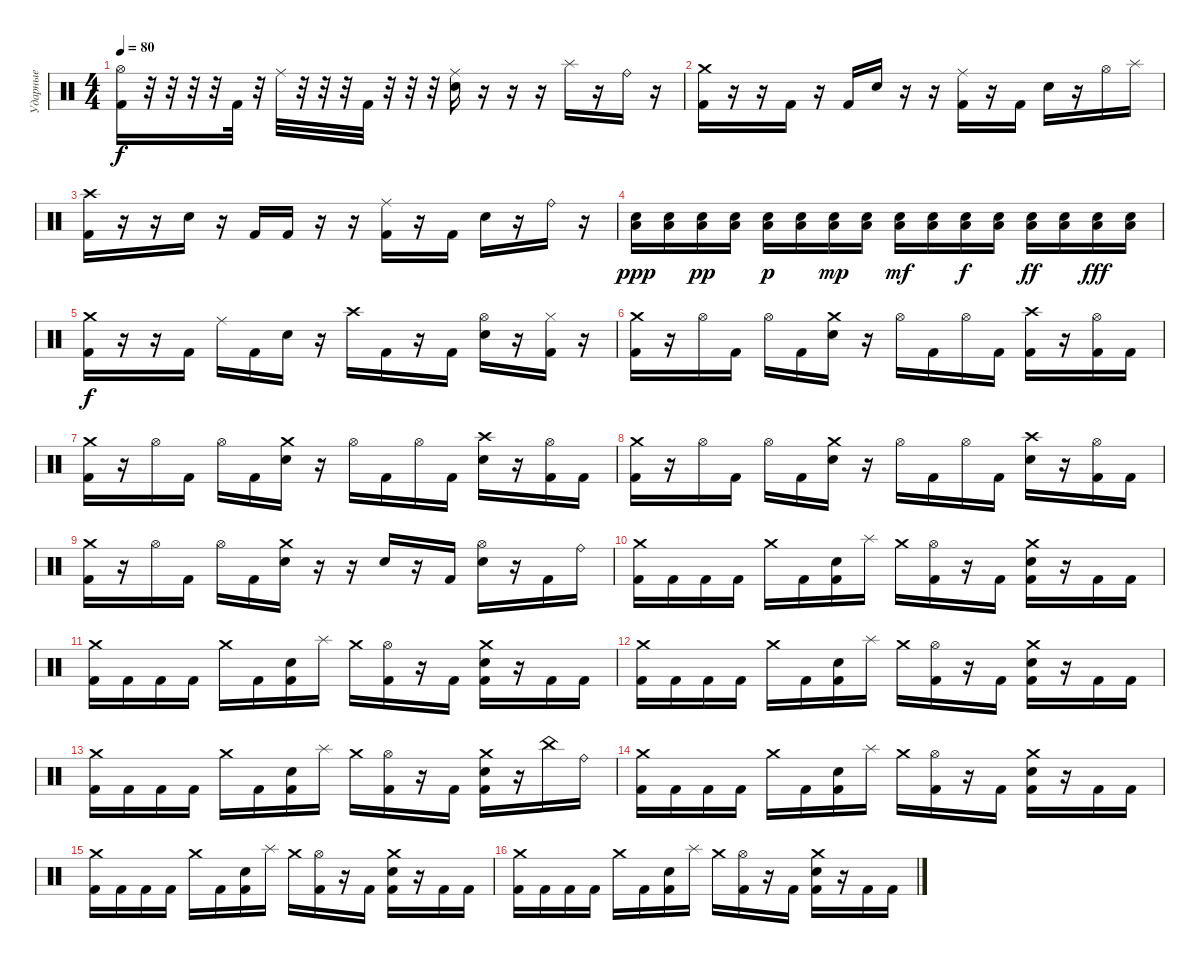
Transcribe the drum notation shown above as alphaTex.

\track ("Ударные" "Ударные") {instrument percussion}
\staff {score}
\articulation defaults
\ts (4 4)
\tempo 80
\clef neutral
\ks c
("Hi-Hat (open)" "Kick (hit) 2").16{dy f} r.32 r.32 r.32 r.32 "Kick (hit) 2".32 r.32 "Ride (middle)".32 r.32 r.32 r.32 "Kick (hit) 2".32 r.32 r.32 r.32 ("Ride (middle)" "Electric Snare (hit)").16 r.16 r.16 r.16 "Splash (hit)".16 r.16 "Ride (bell)".16 r.16 |
("Crash medium (hit)" "Kick (hit) 2").16 r.16 r.16 "Kick (hit) 2".16 r.16 "Kick (hit) 2".16 "Electric Snare (hit)".16 r.16 r.16 ("Ride (middle)" "Kick (hit) 2").16 r.16 "Kick (hit) 2".16 "Electric Snare (hit)".16 r.16 "Hi-Hat (open)".16 "Splash (hit)".16 |
("Crash high (hit)" "Kick (hit) 2").16 r.16 r.16 "Electric Snare (hit)".16 r.16 "Kick (hit) 2".16 "Kick (hit) 2".16 r.16 r.16 ("Ride (middle)" "Kick (hit) 2").16 r.16 "Kick (hit) 2".16 "Electric Snare (hit)".16 r.16 "Ride (bell)".16 r.16 |
("Electric Snare (hit)" "Low Floor Tom (hit)").16{dy ppp} ("Electric Snare (hit)" "Low Floor Tom (hit)").16 ("Electric Snare (hit)" "Low Floor Tom (hit)").16{dy pp} ("Electric Snare (hit)" "Low Floor Tom (hit)").16 ("Electric Snare (hit)" "Low Floor Tom (hit)").16{dy p} ("Electric Snare (hit)" "Low Floor Tom (hit)").16 ("Electric Snare (hit)" "Low Floor Tom (hit)").16{dy mp} ("Electric Snare (hit)" "Low Floor Tom (hit)").16 ("Electric Snare (hit)" "Low Floor Tom (hit)").16{dy mf} ("Electric Snare (hit)" "Low Floor Tom (hit)").16 ("Electric Snare (hit)" "Low Floor Tom (hit)").16{dy f} ("Electric Snare (hit)" "Low Floor Tom (hit)").16 ("Electric Snare (hit)" "Low Floor Tom (hit)").16{dy ff} ("Electric Snare (hit)" "Low Floor Tom (hit)").16 ("Electric Snare (hit)" "Low Floor Tom (hit)").16{dy fff} ("Electric Snare (hit)" "Low Floor Tom (hit)").16 |
("Crash medium (hit)" "Kick (hit) 2").16{dy f} r.16 r.16 "Kick (hit) 2".16 "Ride (middle)".16 "Kick (hit) 2".16 "Electric Snare (hit)".16 r.16 "Crash high (hit)".16 "Kick (hit) 2".16 r.16 "Kick (hit) 2".16 ("Hi-Hat (open)" "Electric Snare (hit)").16 r.16 ("Hi-Hat (closed)" "Kick (hit) 2").16 r.16 |
("Crash medium (hit)" "Kick (hit) 2").16 r.16 "Hi-Hat (open)".16 "Kick (hit) 2".16 "Hi-Hat (open)".16 "Kick (hit) 2".16 ("Crash medium (hit)" "Electric Snare (hit)").16 r.16 "Hi-Hat (open)".16 "Kick (hit) 2".16 "Hi-Hat (open)".16 "Kick (hit) 2".16 ("Crash high (hit)" "Kick (hit) 2").16 r.16 ("Hi-Hat (open)" "Kick (hit) 2").16 "Kick (hit) 2".16 |
("Crash medium (hit)" "Kick (hit) 2").16 r.16 "Hi-Hat (open)".16 "Kick (hit) 2".16 "Hi-Hat (open)".16 "Kick (hit) 2".16 ("Crash medium (hit)" "Electric Snare (hit)").16 r.16 "Hi-Hat (open)".16 "Kick (hit) 2".16 "Hi-Hat (open)".16 "Kick (hit) 2".16 ("Crash high (hit)" "Electric Snare (hit)").16 r.16 ("Hi-Hat (open)" "Kick (hit) 2").16 "Kick (hit) 2".16 |
("Crash medium (hit)" "Kick (hit) 2").16 r.16 "Hi-Hat (open)".16 "Kick (hit) 2".16 "Hi-Hat (open)".16 "Kick (hit) 2".16 ("Crash medium (hit)" "Electric Snare (hit)").16 r.16 "Hi-Hat (open)".16 "Kick (hit) 2".16 "Hi-Hat (open)".16 "Kick (hit) 2".16 ("Crash high (hit)" "Electric Snare (hit)").16 r.16 ("Hi-Hat (open)" "Kick (hit) 2").16 "Kick (hit) 2".16 |
("Crash medium (hit)" "Kick (hit) 2").16 r.16 "Hi-Hat (open)".16 "Kick (hit) 2".16 "Hi-Hat (open)".16 "Kick (hit) 2".16 ("Crash medium (hit)" "Electric Snare (hit)").16 r.16 r.16 "Electric Snare (hit)".16 r.16 "Kick (hit) 2".16 ("Hi-Hat (open)" "Electric Snare (hit)").16 r.16 "Kick (hit) 2".16 "Ride (bell)".16 |
("Crash medium (hit)" "Kick (hit) 2").16 "Kick (hit) 2".16 "Kick (hit) 2".16 "Kick (hit) 2".16 "Crash medium (hit)".16 "Kick (hit) 2".16 ("Electric Snare (hit)" "Kick (hit) 2").16 "Splash (hit)".16 "Crash medium (hit)".16 ("Hi-Hat (open)" "Kick (hit) 2").16 r.16 "Kick (hit) 2".16 ("Crash medium (hit)" "Electric Snare (hit)" "Kick (hit) 2").16 r.16 "Kick (hit) 2".16 "Kick (hit) 2".16 |
("Crash medium (hit)" "Kick (hit) 2").16 "Kick (hit) 2".16 "Kick (hit) 2".16 "Kick (hit) 2".16 "Crash medium (hit)".16 "Kick (hit) 2".16 ("Electric Snare (hit)" "Kick (hit) 2").16 "Splash (hit)".16 "Crash medium (hit)".16 ("Hi-Hat (open)" "Kick (hit) 2").16 r.16 "Kick (hit) 2".16 ("Crash medium (hit)" "Electric Snare (hit)" "Kick (hit) 2").16 r.16 "Kick (hit) 2".16 "Kick (hit) 2".16 |
("Crash medium (hit)" "Kick (hit) 2").16 "Kick (hit) 2".16 "Kick (hit) 2".16 "Kick (hit) 2".16 "Crash medium (hit)".16 "Kick (hit) 2".16 ("Electric Snare (hit)" "Kick (hit) 2").16 "Splash (hit)".16 "Crash medium (hit)".16 ("Hi-Hat (open)" "Kick (hit) 2").16 r.16 "Kick (hit) 2".16 ("Crash medium (hit)" "Electric Snare (hit)" "Kick (hit) 2").16 r.16 "Kick (hit) 2".16 "Kick (hit) 2".16 |
("Crash medium (hit)" "Kick (hit) 2").16 "Kick (hit) 2".16 "Kick (hit) 2".16 "Kick (hit) 2".16 "Crash medium (hit)".16 "Kick (hit) 2".16 ("Electric Snare (hit)" "Kick (hit) 2").16 "Splash (hit)".16 "Crash medium (hit)".16 ("Hi-Hat (open)" "Kick (hit) 2").16 r.16 "Kick (hit) 2".16 ("Crash medium (hit)" "Electric Snare (hit)" "Kick (hit) 2").16 r.16 "China (hit)".16 "Ride (bell)".16 |
("Crash medium (hit)" "Kick (hit) 2").16 "Kick (hit) 2".16 "Kick (hit) 2".16 "Kick (hit) 2".16 "Crash medium (hit)".16 "Kick (hit) 2".16 ("Electric Snare (hit)" "Kick (hit) 2").16 "Splash (hit)".16 "Crash medium (hit)".16 ("Hi-Hat (open)" "Kick (hit) 2").16 r.16 "Kick (hit) 2".16 ("Crash medium (hit)" "Electric Snare (hit)" "Kick (hit) 2").16 r.16 "Kick (hit) 2".16 "Kick (hit) 2".16 |
("Crash medium (hit)" "Kick (hit) 2").16 "Kick (hit) 2".16 "Kick (hit) 2".16 "Kick (hit) 2".16 "Crash medium (hit)".16 "Kick (hit) 2".16 ("Electric Snare (hit)" "Kick (hit) 2").16 "Splash (hit)".16 "Crash medium (hit)".16 ("Hi-Hat (open)" "Kick (hit) 2").16 r.16 "Kick (hit) 2".16 ("Crash medium (hit)" "Electric Snare (hit)" "Kick (hit) 2").16 r.16 "Kick (hit) 2".16 "Kick (hit) 2".16 |
("Crash medium (hit)" "Kick (hit) 2").16 "Kick (hit) 2".16 "Kick (hit) 2".16 "Kick (hit) 2".16 "Crash medium (hit)".16 "Kick (hit) 2".16 ("Electric Snare (hit)" "Kick (hit) 2").16 "Splash (hit)".16 "Crash medium (hit)".16 ("Hi-Hat (open)" "Kick (hit) 2").16 r.16 "Kick (hit) 2".16 ("Crash medium (hit)" "Electric Snare (hit)" "Kick (hit) 2").16 r.16 "Kick (hit) 2".16 "Kick (hit) 2".16
